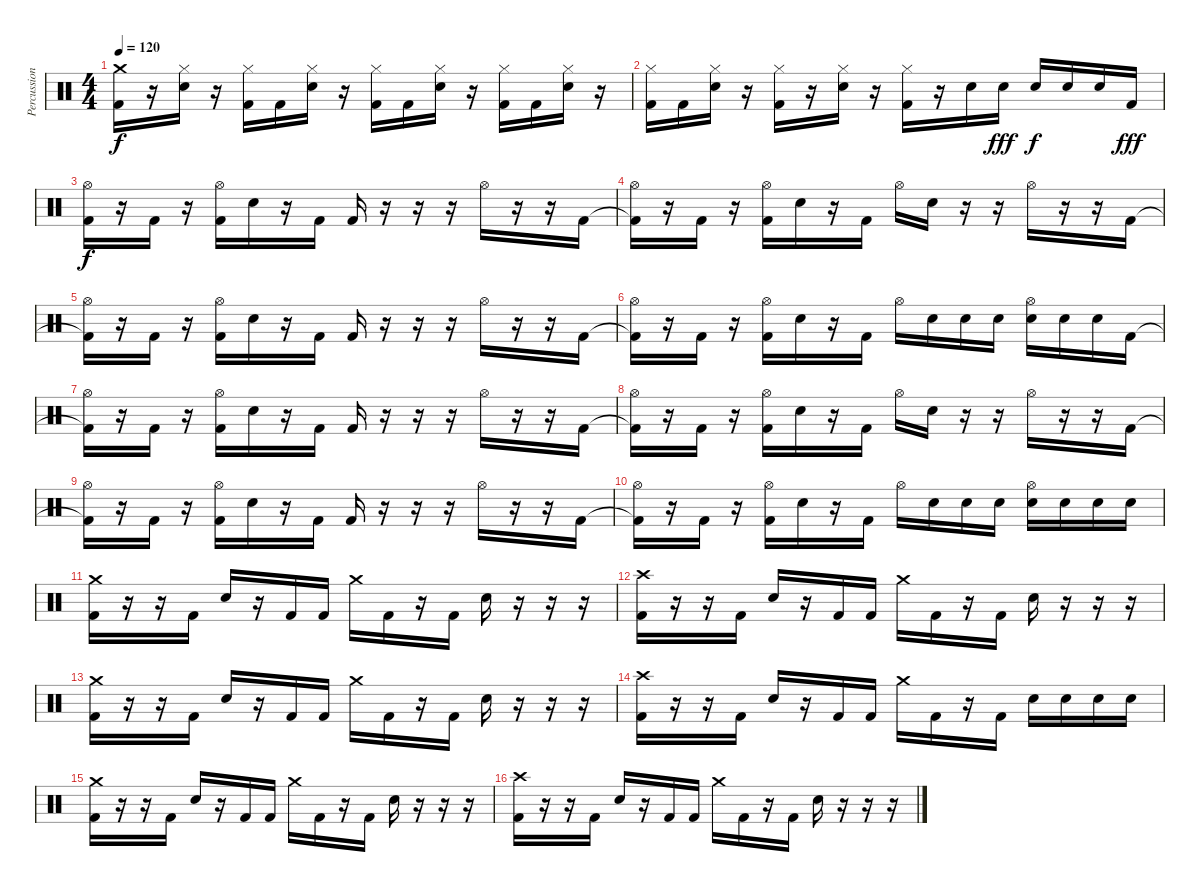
\track ("Percussion" "Percussion") {instrument percussion}
\staff {score}
\articulation defaults
\ts (4 4)
\tempo 120
\clef neutral
\ks c
("Kick (hit) 2" "Crash medium (hit)").16{dy f} r.16 ("Snare (hit) 2" "Hi-Hat (closed)").16 r.16 ("Kick (hit) 2" "Hi-Hat (closed)").16 "Kick (hit) 2".16 ("Snare (hit) 2" "Hi-Hat (closed)").16 r.16 ("Kick (hit) 2" "Hi-Hat (closed)").16 "Kick (hit) 2".16 ("Snare (hit) 2" "Hi-Hat (closed)").16 r.16 ("Kick (hit) 2" "Hi-Hat (closed)").16 "Kick (hit) 2".16 ("Snare (hit) 2" "Hi-Hat (closed)").16 r.16 |
("Kick (hit) 2" "Hi-Hat (closed)").16 "Kick (hit) 2".16 ("Snare (hit) 2" "Hi-Hat (closed)").16 r.16 ("Kick (hit) 2" "Hi-Hat (closed)").16 r.16 ("Snare (hit) 2" "Hi-Hat (closed)").16 r.16 ("Kick (hit) 2" "Hi-Hat (closed)").16 r.16 "Snare (hit) 2".16 "Snare (hit) 2".16{dy fff} "Snare (hit) 2".16{dy f} "Snare (hit) 2".16 "Snare (hit) 2".16 "Kick (hit) 2".16{dy fff} |
("Kick (hit) 2" "Hi-Hat (open)").16{dy f} r.16 "Kick (hit) 2".16 r.16 ("Kick (hit) 2" "Hi-Hat (open)").16 "Snare (hit) 2".16 r.16 "Kick (hit) 2".16 "Kick (hit) 2".16 r.16 r.16 r.16 "Hi-Hat (open)".16 r.16 r.16 "Kick (hit) 2".16 |
("Kick (hit) 2"{t} "Hi-Hat (open)").16 r.16 "Kick (hit) 2".16 r.16 ("Kick (hit) 2" "Hi-Hat (open)").16 "Snare (hit) 2".16 r.16 "Kick (hit) 2".16 "Hi-Hat (open)".16 "Snare (hit) 2".16 r.16 r.16 "Hi-Hat (open)".16 r.16 r.16 "Kick (hit) 2".16 |
("Kick (hit) 2"{t} "Hi-Hat (open)").16 r.16 "Kick (hit) 2".16 r.16 ("Kick (hit) 2" "Hi-Hat (open)").16 "Snare (hit) 2".16 r.16 "Kick (hit) 2".16 "Kick (hit) 2".16 r.16 r.16 r.16 "Hi-Hat (open)".16 r.16 r.16 "Kick (hit) 2".16 |
("Kick (hit) 2"{t} "Hi-Hat (open)").16 r.16 "Kick (hit) 2".16 r.16 ("Kick (hit) 2" "Hi-Hat (open)").16 "Snare (hit) 2".16 r.16 "Kick (hit) 2".16 "Hi-Hat (open)".16 "Snare (hit) 2".16 "Snare (hit) 2".16 "Snare (hit) 2".16 ("Snare (hit) 2" "Hi-Hat (open)").16 "Snare (hit) 2".16 "Snare (hit) 2".16 "Kick (hit) 2".16 |
("Kick (hit) 2"{t} "Hi-Hat (open)").16 r.16 "Kick (hit) 2".16 r.16 ("Kick (hit) 2" "Hi-Hat (open)").16 "Snare (hit) 2".16 r.16 "Kick (hit) 2".16 "Kick (hit) 2".16 r.16 r.16 r.16 "Hi-Hat (open)".16 r.16 r.16 "Kick (hit) 2".16 |
("Kick (hit) 2"{t} "Hi-Hat (open)").16 r.16 "Kick (hit) 2".16 r.16 ("Kick (hit) 2" "Hi-Hat (open)").16 "Snare (hit) 2".16 r.16 "Kick (hit) 2".16 "Hi-Hat (open)".16 "Snare (hit) 2".16 r.16 r.16 "Hi-Hat (open)".16 r.16 r.16 "Kick (hit) 2".16 |
("Kick (hit) 2"{t} "Hi-Hat (open)").16 r.16 "Kick (hit) 2".16 r.16 ("Kick (hit) 2" "Hi-Hat (open)").16 "Snare (hit) 2".16 r.16 "Kick (hit) 2".16 "Kick (hit) 2".16 r.16 r.16 r.16 "Hi-Hat (open)".16 r.16 r.16 "Kick (hit) 2".16 |
("Kick (hit) 2"{t} "Hi-Hat (open)").16 r.16 "Kick (hit) 2".16 r.16 ("Kick (hit) 2" "Hi-Hat (open)").16 "Snare (hit) 2".16 r.16 "Kick (hit) 2".16 "Hi-Hat (open)".16 "Snare (hit) 2".16 "Snare (hit) 2".16 "Snare (hit) 2".16 ("Snare (hit) 2" "Hi-Hat (open)").16 "Snare (hit) 2".16 "Snare (hit) 2".16 "Snare (hit) 2".16 |
("Kick (hit) 2" "Crash medium (hit)").16 r.16 r.16 "Kick (hit) 2".16 "Snare (hit) 2".16 r.16 "Kick (hit) 2".16 "Kick (hit) 2".16 "Crash medium (hit)".16 "Kick (hit) 2".16 r.16 "Kick (hit) 2".16 "Snare (hit) 2".16 r.16 r.16 r.16 |
("Kick (hit) 2" "Crash high (hit)").16 r.16 r.16 "Kick (hit) 2".16 "Snare (hit) 2".16 r.16 "Kick (hit) 2".16 "Kick (hit) 2".16 "Crash medium (hit)".16 "Kick (hit) 2".16 r.16 "Kick (hit) 2".16 "Snare (hit) 2".16 r.16 r.16 r.16 |
("Kick (hit) 2" "Crash medium (hit)").16 r.16 r.16 "Kick (hit) 2".16 "Snare (hit) 2".16 r.16 "Kick (hit) 2".16 "Kick (hit) 2".16 "Crash medium (hit)".16 "Kick (hit) 2".16 r.16 "Kick (hit) 2".16 "Snare (hit) 2".16 r.16 r.16 r.16 |
("Kick (hit) 2" "Crash high (hit)").16 r.16 r.16 "Kick (hit) 2".16 "Snare (hit) 2".16 r.16 "Kick (hit) 2".16 "Kick (hit) 2".16 "Crash medium (hit)".16 "Kick (hit) 2".16 r.16 "Kick (hit) 2".16 "Snare (hit) 2".16 "Snare (hit) 2".16 "Snare (hit) 2".16 "Snare (hit) 2".16 |
("Kick (hit) 2" "Crash medium (hit)").16 r.16 r.16 "Kick (hit) 2".16 "Snare (hit) 2".16 r.16 "Kick (hit) 2".16 "Kick (hit) 2".16 "Crash medium (hit)".16 "Kick (hit) 2".16 r.16 "Kick (hit) 2".16 "Snare (hit) 2".16 r.16 r.16 r.16 |
("Kick (hit) 2" "Crash high (hit)").16 r.16 r.16 "Kick (hit) 2".16 "Snare (hit) 2".16 r.16 "Kick (hit) 2".16 "Kick (hit) 2".16 "Crash medium (hit)".16 "Kick (hit) 2".16 r.16 "Kick (hit) 2".16 "Snare (hit) 2".16 r.16 r.16 r.16
